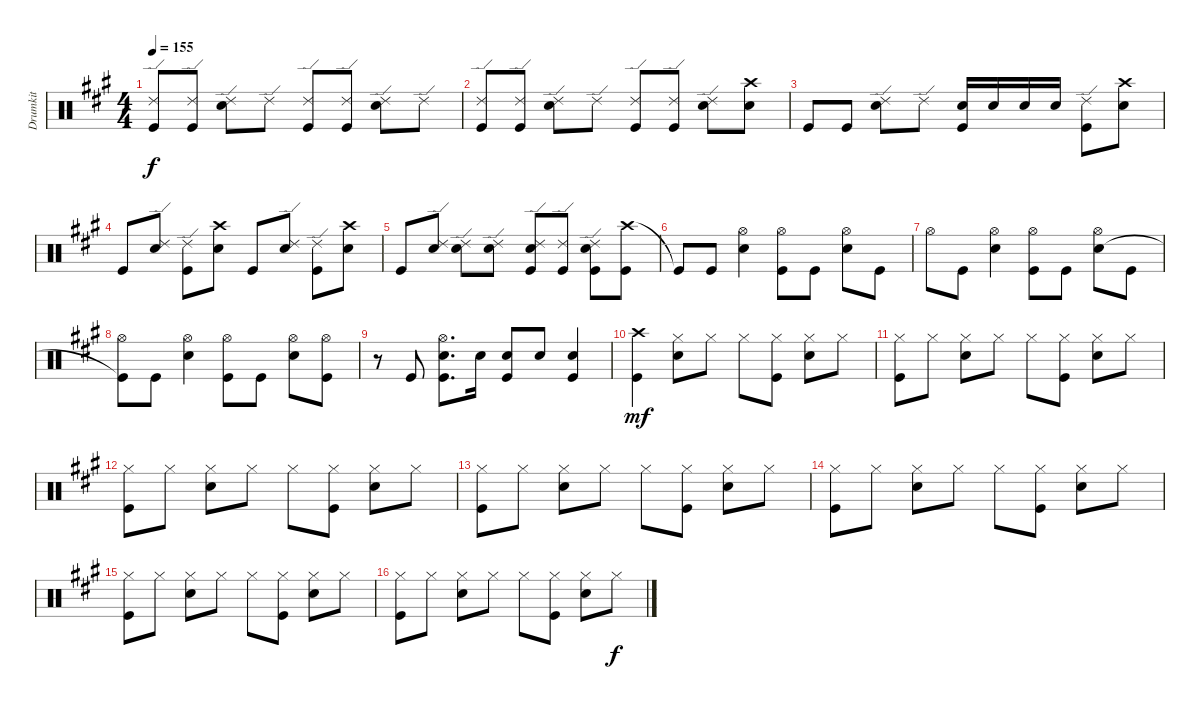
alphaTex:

\track ("Drumkit" "Drumkit") {instrument percussion}
\staff {score}
\articulation defaults
\ts (4 4)
\tempo 155
\clef neutral
\ks a
("Ride (edge) 2" "Kick (hit)").8{dy f} ("Ride (edge) 2" "Kick (hit)").8 ("Ride (edge) 2" "Snare (hit) 2").8 "Ride (edge) 2".8 ("Ride (edge) 2" "Kick (hit)").8 ("Ride (edge) 2" "Kick (hit)").8 ("Ride (edge) 2" "Snare (hit) 2").8 "Ride (edge) 2".8 |
("Ride (edge) 2" "Kick (hit)").8 ("Ride (edge) 2" "Kick (hit)").8 ("Ride (edge) 2" "Snare (hit) 2").8 "Ride (edge) 2".8 ("Ride (edge) 2" "Kick (hit)").8 ("Ride (edge) 2" "Kick (hit)").8 ("Ride (edge) 2" "Snare (hit) 2").8 ("Crash high (hit)" "Snare (hit) 2").8 |
"Kick (hit)".8 "Kick (hit)".8 ("Ride (edge) 2" "Snare (hit) 2").8 "Ride (edge) 2".8 ("Snare (hit) 2" "Kick (hit)").16 "Snare (hit) 2".16 "Snare (hit) 2".16 "Snare (hit) 2".16 ("Ride (edge) 2" "Kick (hit)").8 ("Crash high (hit)" "Snare (hit) 2").8 |
"Kick (hit)".8 ("Ride (edge) 2" "Snare (hit) 2").8 ("Ride (edge) 2" "Kick (hit)").8 ("Crash high (hit)" "Snare (hit) 2").8 "Kick (hit)".8 ("Ride (edge) 2" "Snare (hit) 2").8 ("Ride (edge) 2" "Kick (hit)").8 ("Crash high (hit)" "Snare (hit) 2").8 |
"Kick (hit)".8 ("Ride (edge) 2" "Snare (hit) 2").8 ("Ride (edge) 2" "Snare (hit) 2").8 ("Ride (edge) 2" "Snare (hit) 2").8 ("Ride (edge) 2" "Snare (hit) 2" "Kick (hit)").8 ("Ride (edge) 2" "Kick (hit)").8 ("Ride (edge) 2" "Snare (hit) 2" "Kick (hit)").8 ("Crash high (hit)" "Kick (hit)").8 |
"Kick (hit)"{t}.8 "Kick (hit)".8 ("Hi-Hat (open)" "Snare (hit) 2").4 ("Hi-Hat (open)" "Kick (hit)").8 "Kick (hit)".8 ("Hi-Hat (open)" "Snare (hit) 2").8 "Kick (hit)".8 |
"Hi-Hat (open)".8 "Kick (hit)".8 ("Hi-Hat (open)" "Snare (hit) 2").4 ("Hi-Hat (open)" "Kick (hit)").8 "Kick (hit)".8 ("Hi-Hat (open)" "Snare (hit) 2").8 "Kick (hit)".8 |
("Hi-Hat (open)" "Kick (hit)"{t}).8 "Kick (hit)".8 ("Hi-Hat (open)" "Snare (hit) 2").4 ("Hi-Hat (open)" "Kick (hit)").8 "Kick (hit)".8 ("Hi-Hat (open)" "Snare (hit) 2").8 ("Hi-Hat (open)" "Kick (hit)").8 |
r.8 "Kick (hit)".8 ("Hi-Hat (open)" "Snare (hit) 2" "Kick (hit)").8{d} "Snare (hit) 2".16 ("Snare (hit) 2" "Kick (hit)").8 "Snare (hit) 2".8 ("Snare (hit) 2" "Kick (hit)").4 |
("Crash high (hit)" "Kick (hit)").4{dy mf} ("Hi-Hat (closed)" "Snare (hit) 2").8 "Hi-Hat (closed)".8 "Hi-Hat (closed)".8 ("Hi-Hat (closed)" "Kick (hit)").8 ("Hi-Hat (closed)" "Snare (hit) 2").8 "Hi-Hat (closed)".8 |
("Hi-Hat (closed)" "Kick (hit)").8 "Hi-Hat (closed)".8 ("Hi-Hat (closed)" "Snare (hit) 2").8 "Hi-Hat (closed)".8 "Hi-Hat (closed)".8 ("Hi-Hat (closed)" "Kick (hit)").8 ("Hi-Hat (closed)" "Snare (hit) 2").8 "Hi-Hat (closed)".8 |
("Hi-Hat (closed)" "Kick (hit)").8 "Hi-Hat (closed)".8 ("Hi-Hat (closed)" "Snare (hit) 2").8 "Hi-Hat (closed)".8 "Hi-Hat (closed)".8 ("Hi-Hat (closed)" "Kick (hit)").8 ("Hi-Hat (closed)" "Snare (hit) 2").8 "Hi-Hat (closed)".8 |
("Hi-Hat (closed)" "Kick (hit)").8 "Hi-Hat (closed)".8 ("Hi-Hat (closed)" "Snare (hit) 2").8 "Hi-Hat (closed)".8 "Hi-Hat (closed)".8 ("Hi-Hat (closed)" "Kick (hit)").8 ("Hi-Hat (closed)" "Snare (hit) 2").8 "Hi-Hat (closed)".8 |
("Hi-Hat (closed)" "Kick (hit)").8 "Hi-Hat (closed)".8 ("Hi-Hat (closed)" "Snare (hit) 2").8 "Hi-Hat (closed)".8 "Hi-Hat (closed)".8 ("Hi-Hat (closed)" "Kick (hit)").8 ("Hi-Hat (closed)" "Snare (hit) 2").8 "Hi-Hat (closed)".8 |
("Hi-Hat (closed)" "Kick (hit)").8 "Hi-Hat (closed)".8 ("Hi-Hat (closed)" "Snare (hit) 2").8 "Hi-Hat (closed)".8 "Hi-Hat (closed)".8 ("Hi-Hat (closed)" "Kick (hit)").8 ("Hi-Hat (closed)" "Snare (hit) 2").8 "Hi-Hat (closed)".8 |
("Hi-Hat (closed)" "Kick (hit)").8 "Hi-Hat (closed)".8 ("Hi-Hat (closed)" "Snare (hit) 2").8 "Hi-Hat (closed)".8 "Hi-Hat (closed)".8 ("Hi-Hat (closed)" "Kick (hit)").8 ("Hi-Hat (closed)" "Snare (hit) 2").8 "Hi-Hat (closed)".8{dy f}
